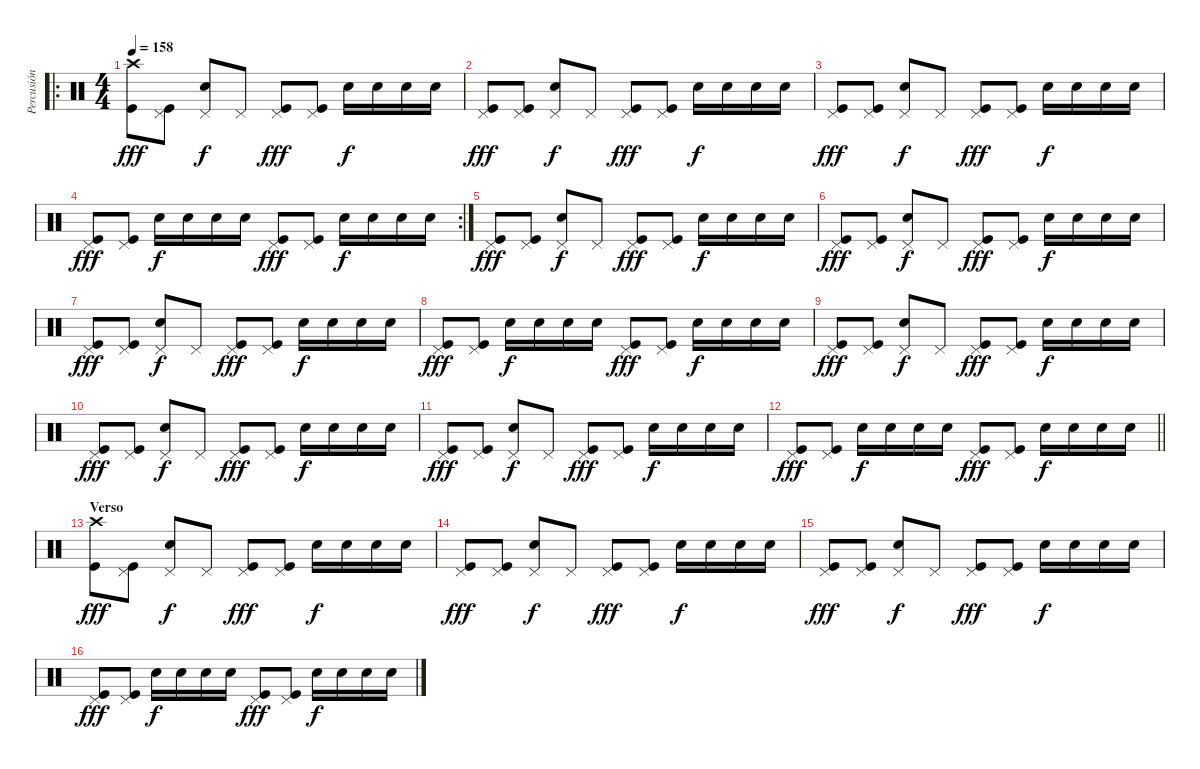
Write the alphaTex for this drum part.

\track ("Percusión" "Percusión") {instrument percussion}
\staff {score}
\articulation defaults
\ro
\ts (4 4)
\tempo 158
\clef neutral
\ks c
("Crash high (hit)" "Kick (hit)").8{dy fff} ("Pedal Hi-Hat (hit)" "Kick (hit)").8 ("Pedal Hi-Hat (hit)" "Electric Snare (hit)").8{dy f} "Pedal Hi-Hat (hit)".8 ("Pedal Hi-Hat (hit)" "Kick (hit)").8{dy fff} ("Pedal Hi-Hat (hit)" "Kick (hit)").8 "Electric Snare (hit)".16{dy f} "Electric Snare (hit)".16 "Electric Snare (hit)".16 "Electric Snare (hit)".16 |
("Pedal Hi-Hat (hit)" "Kick (hit)").8{dy fff} ("Pedal Hi-Hat (hit)" "Kick (hit)").8 ("Pedal Hi-Hat (hit)" "Electric Snare (hit)").8{dy f} "Pedal Hi-Hat (hit)".8 ("Pedal Hi-Hat (hit)" "Kick (hit)").8{dy fff} ("Pedal Hi-Hat (hit)" "Kick (hit)").8 "Electric Snare (hit)".16{dy f} "Electric Snare (hit)".16 "Electric Snare (hit)".16 "Electric Snare (hit)".16 |
("Pedal Hi-Hat (hit)" "Kick (hit)").8{dy fff} ("Pedal Hi-Hat (hit)" "Kick (hit)").8 ("Pedal Hi-Hat (hit)" "Electric Snare (hit)").8{dy f} "Pedal Hi-Hat (hit)".8 ("Pedal Hi-Hat (hit)" "Kick (hit)").8{dy fff} ("Pedal Hi-Hat (hit)" "Kick (hit)").8 "Electric Snare (hit)".16{dy f} "Electric Snare (hit)".16 "Electric Snare (hit)".16 "Electric Snare (hit)".16 |
\rc 2
("Pedal Hi-Hat (hit)" "Kick (hit)").8{dy fff} ("Pedal Hi-Hat (hit)" "Kick (hit)").8 "Electric Snare (hit)".16{dy f} "Electric Snare (hit)".16 "Electric Snare (hit)".16 "Electric Snare (hit)".16 ("Pedal Hi-Hat (hit)" "Kick (hit)").8{dy fff} ("Pedal Hi-Hat (hit)" "Kick (hit)").8 "Electric Snare (hit)".16{dy f} "Electric Snare (hit)".16 "Electric Snare (hit)".16 "Electric Snare (hit)".16 |
("Pedal Hi-Hat (hit)" "Kick (hit)").8{dy fff} ("Pedal Hi-Hat (hit)" "Kick (hit)").8 ("Pedal Hi-Hat (hit)" "Electric Snare (hit)").8{dy f} "Pedal Hi-Hat (hit)".8 ("Pedal Hi-Hat (hit)" "Kick (hit)").8{dy fff} ("Pedal Hi-Hat (hit)" "Kick (hit)").8 "Electric Snare (hit)".16{dy f} "Electric Snare (hit)".16 "Electric Snare (hit)".16 "Electric Snare (hit)".16 |
("Pedal Hi-Hat (hit)" "Kick (hit)").8{dy fff} ("Pedal Hi-Hat (hit)" "Kick (hit)").8 ("Pedal Hi-Hat (hit)" "Electric Snare (hit)").8{dy f} "Pedal Hi-Hat (hit)".8 ("Pedal Hi-Hat (hit)" "Kick (hit)").8{dy fff} ("Pedal Hi-Hat (hit)" "Kick (hit)").8 "Electric Snare (hit)".16{dy f} "Electric Snare (hit)".16 "Electric Snare (hit)".16 "Electric Snare (hit)".16 |
("Pedal Hi-Hat (hit)" "Kick (hit)").8{dy fff} ("Pedal Hi-Hat (hit)" "Kick (hit)").8 ("Pedal Hi-Hat (hit)" "Electric Snare (hit)").8{dy f} "Pedal Hi-Hat (hit)".8 ("Pedal Hi-Hat (hit)" "Kick (hit)").8{dy fff} ("Pedal Hi-Hat (hit)" "Kick (hit)").8 "Electric Snare (hit)".16{dy f} "Electric Snare (hit)".16 "Electric Snare (hit)".16 "Electric Snare (hit)".16 |
("Pedal Hi-Hat (hit)" "Kick (hit)").8{dy fff} ("Pedal Hi-Hat (hit)" "Kick (hit)").8 "Electric Snare (hit)".16{dy f} "Electric Snare (hit)".16 "Electric Snare (hit)".16 "Electric Snare (hit)".16 ("Pedal Hi-Hat (hit)" "Kick (hit)").8{dy fff} ("Pedal Hi-Hat (hit)" "Kick (hit)").8 "Electric Snare (hit)".16{dy f} "Electric Snare (hit)".16 "Electric Snare (hit)".16 "Electric Snare (hit)".16 |
("Pedal Hi-Hat (hit)" "Kick (hit)").8{dy fff} ("Pedal Hi-Hat (hit)" "Kick (hit)").8 ("Pedal Hi-Hat (hit)" "Electric Snare (hit)").8{dy f} "Pedal Hi-Hat (hit)".8 ("Pedal Hi-Hat (hit)" "Kick (hit)").8{dy fff} ("Pedal Hi-Hat (hit)" "Kick (hit)").8 "Electric Snare (hit)".16{dy f} "Electric Snare (hit)".16 "Electric Snare (hit)".16 "Electric Snare (hit)".16 |
("Pedal Hi-Hat (hit)" "Kick (hit)").8{dy fff} ("Pedal Hi-Hat (hit)" "Kick (hit)").8 ("Pedal Hi-Hat (hit)" "Electric Snare (hit)").8{dy f} "Pedal Hi-Hat (hit)".8 ("Pedal Hi-Hat (hit)" "Kick (hit)").8{dy fff} ("Pedal Hi-Hat (hit)" "Kick (hit)").8 "Electric Snare (hit)".16{dy f} "Electric Snare (hit)".16 "Electric Snare (hit)".16 "Electric Snare (hit)".16 |
("Pedal Hi-Hat (hit)" "Kick (hit)").8{dy fff} ("Pedal Hi-Hat (hit)" "Kick (hit)").8 ("Pedal Hi-Hat (hit)" "Electric Snare (hit)").8{dy f} "Pedal Hi-Hat (hit)".8 ("Pedal Hi-Hat (hit)" "Kick (hit)").8{dy fff} ("Pedal Hi-Hat (hit)" "Kick (hit)").8 "Electric Snare (hit)".16{dy f} "Electric Snare (hit)".16 "Electric Snare (hit)".16 "Electric Snare (hit)".16 |
\barLineRight lightlight
("Pedal Hi-Hat (hit)" "Kick (hit)").8{dy fff} ("Pedal Hi-Hat (hit)" "Kick (hit)").8 "Electric Snare (hit)".16{dy f} "Electric Snare (hit)".16 "Electric Snare (hit)".16 "Electric Snare (hit)".16 ("Pedal Hi-Hat (hit)" "Kick (hit)").8{dy fff} ("Pedal Hi-Hat (hit)" "Kick (hit)").8 "Electric Snare (hit)".16{dy f} "Electric Snare (hit)".16 "Electric Snare (hit)".16 "Electric Snare (hit)".16 |
\section ("" "Verso")
("Crash high (hit)" "Kick (hit)").8{dy fff} ("Pedal Hi-Hat (hit)" "Kick (hit)").8 ("Pedal Hi-Hat (hit)" "Electric Snare (hit)").8{dy f} "Pedal Hi-Hat (hit)".8 ("Pedal Hi-Hat (hit)" "Kick (hit)").8{dy fff} ("Pedal Hi-Hat (hit)" "Kick (hit)").8 "Electric Snare (hit)".16{dy f} "Electric Snare (hit)".16 "Electric Snare (hit)".16 "Electric Snare (hit)".16 |
("Pedal Hi-Hat (hit)" "Kick (hit)").8{dy fff} ("Pedal Hi-Hat (hit)" "Kick (hit)").8 ("Pedal Hi-Hat (hit)" "Electric Snare (hit)").8{dy f} "Pedal Hi-Hat (hit)".8 ("Pedal Hi-Hat (hit)" "Kick (hit)").8{dy fff} ("Pedal Hi-Hat (hit)" "Kick (hit)").8 "Electric Snare (hit)".16{dy f} "Electric Snare (hit)".16 "Electric Snare (hit)".16 "Electric Snare (hit)".16 |
("Pedal Hi-Hat (hit)" "Kick (hit)").8{dy fff} ("Pedal Hi-Hat (hit)" "Kick (hit)").8 ("Pedal Hi-Hat (hit)" "Electric Snare (hit)").8{dy f} "Pedal Hi-Hat (hit)".8 ("Pedal Hi-Hat (hit)" "Kick (hit)").8{dy fff} ("Pedal Hi-Hat (hit)" "Kick (hit)").8 "Electric Snare (hit)".16{dy f} "Electric Snare (hit)".16 "Electric Snare (hit)".16 "Electric Snare (hit)".16 |
("Pedal Hi-Hat (hit)" "Kick (hit)").8{dy fff} ("Pedal Hi-Hat (hit)" "Kick (hit)").8 "Electric Snare (hit)".16{dy f} "Electric Snare (hit)".16 "Electric Snare (hit)".16 "Electric Snare (hit)".16 ("Pedal Hi-Hat (hit)" "Kick (hit)").8{dy fff} ("Pedal Hi-Hat (hit)" "Kick (hit)").8 "Electric Snare (hit)".16{dy f} "Electric Snare (hit)".16 "Electric Snare (hit)".16 "Electric Snare (hit)".16
